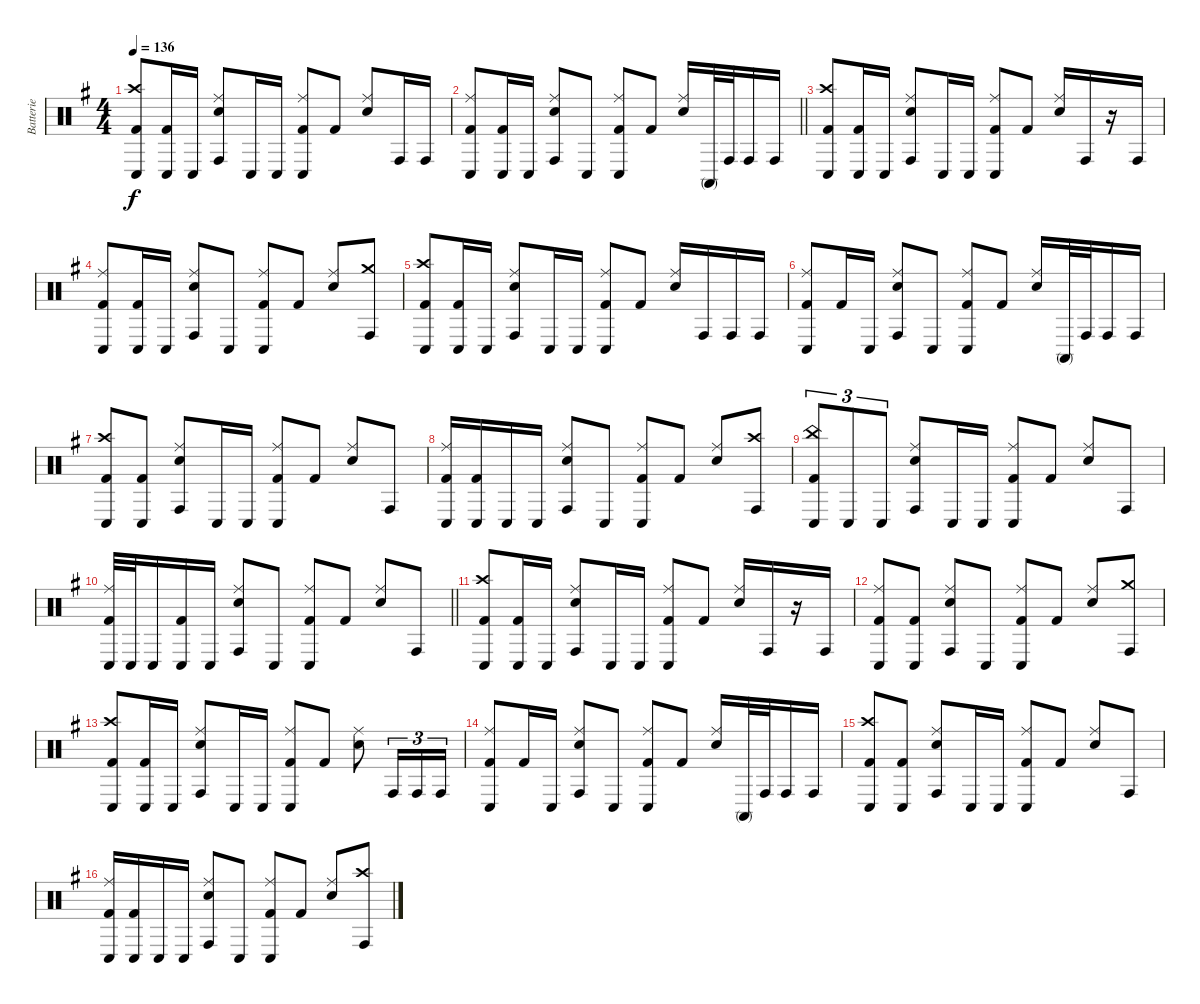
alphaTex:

\track ("Batterie" "Batterie") {instrument percussion}
\staff {score}
\articulation defaults
\ts (4 4)
\tempo 136
\clef neutral
\ks g
("Crash high (hit)" "Conga low (hit)" "Kick (hit) 2").8{dy f} ("Conga low (hit)" "Kick (hit) 2").16 "Conga low (hit)".16 ("Ride (middle)" "Conga high (hit)" "Snare (hit) 2").8 "Conga low (hit)".16 "Conga low (hit)".16 ("Ride (middle)" "Conga low (hit)" "Kick (hit) 2").8 "Kick (hit) 2".8 ("Ride (middle)" "Snare (hit) 2").8 "Conga high (hit)".16 "Conga high (hit)".16 |
\barLineRight lightlight
("Ride (middle)" "Conga low (hit)" "Kick (hit) 2").8 ("Conga low (hit)" "Kick (hit) 2").16 "Conga low (hit)".16 ("Ride (middle)" "Conga high (hit)" "Snare (hit) 2").8 "Conga low (hit)".8 ("Ride (middle)" "Conga low (hit)" "Kick (hit) 2").8 "Kick (hit) 2".8 ("Ride (middle)" "Snare (hit) 2").16 "Conga high (mute)".32 "Conga high (hit)".32 "Conga high (hit)".16 "Conga high (hit)".16 |
("Crash high (hit)" "Conga low (hit)" "Kick (hit) 2").8 ("Conga low (hit)" "Kick (hit) 2").16 "Conga low (hit)".16 ("Ride (middle)" "Conga high (hit)" "Snare (hit) 2").8 "Conga low (hit)".16 "Conga low (hit)".16 ("Ride (middle)" "Conga low (hit)" "Kick (hit) 2").8 "Kick (hit) 2".8 ("Ride (middle)" "Snare (hit) 2").16 "Conga high (hit)".16 r.16 "Conga high (hit)".16 |
("Ride (middle)" "Conga low (hit)" "Kick (hit) 2").8 ("Conga low (hit)" "Kick (hit) 2").16 "Conga low (hit)".16 ("Ride (middle)" "Conga high (hit)" "Snare (hit) 2").8 "Conga low (hit)".8 ("Ride (middle)" "Conga low (hit)" "Kick (hit) 2").8 "Kick (hit) 2".8 ("Ride (middle)" "Snare (hit) 2").8 ("Crash medium (hit)" "Conga high (hit)").8 |
("Crash high (hit)" "Conga low (hit)" "Kick (hit) 2").8 ("Conga low (hit)" "Kick (hit) 2").16 "Conga low (hit)".16 ("Ride (middle)" "Conga high (hit)" "Snare (hit) 2").8 "Conga low (hit)".16 "Conga low (hit)".16 ("Ride (middle)" "Conga low (hit)" "Kick (hit) 2").8 "Kick (hit) 2".8 ("Ride (middle)" "Snare (hit) 2").16 "Conga high (hit)".16 "Conga high (hit)".16 "Conga high (hit)".16 |
("Ride (middle)" "Conga low (hit)" "Kick (hit) 2").8 "Kick (hit) 2".16 "Conga low (hit)".16 ("Ride (middle)" "Conga high (hit)" "Snare (hit) 2").8 "Conga low (hit)".8 ("Ride (middle)" "Conga low (hit)" "Kick (hit) 2").8 "Kick (hit) 2".8 ("Ride (middle)" "Snare (hit) 2").16 "Conga high (mute)".32 "Conga high (hit)".32 "Conga high (hit)".16 "Conga high (hit)".16 |
("Crash high (hit)" "Conga low (hit)" "Kick (hit) 2").8 ("Conga low (hit)" "Kick (hit) 2").8 ("Ride (middle)" "Conga high (hit)" "Snare (hit) 2").8 "Conga low (hit)".16 "Conga low (hit)".16 ("Ride (middle)" "Conga low (hit)" "Kick (hit) 2").8 "Kick (hit) 2".8 ("Ride (middle)" "Snare (hit) 2").8 "Conga high (hit)".8 |
("Ride (middle)" "Conga low (hit)" "Kick (hit) 2").16 ("Conga low (hit)" "Kick (hit) 2").16 "Conga low (hit)".16 "Conga low (hit)".16 ("Ride (middle)" "Conga high (hit)" "Snare (hit) 2").8 "Conga low (hit)".8 ("Ride (middle)" "Conga low (hit)" "Kick (hit) 2").8 "Kick (hit) 2".8 ("Ride (middle)" "Snare (hit) 2").8 ("Crash high (hit)" "Conga high (hit)").8 |
("China (hit)" "Conga low (hit)" "Kick (hit) 2").8{tu (3 2)} "Conga low (hit)".8{tu (3 2)} "Conga low (hit)".8{tu (3 2)} ("Ride (middle)" "Conga high (hit)" "Snare (hit) 2").8 "Conga low (hit)".16 "Conga low (hit)".16 ("Ride (middle)" "Conga low (hit)" "Kick (hit) 2").8 "Kick (hit) 2".8 ("Ride (middle)" "Snare (hit) 2").8 "Conga high (hit)".8 |
\barLineRight lightlight
("Ride (middle)" "Conga low (hit)" "Kick (hit) 2").32 "Conga low (hit)".32 "Conga low (hit)".16 ("Conga low (hit)" "Kick (hit) 2").16 "Conga low (hit)".16 ("Ride (middle)" "Conga high (hit)" "Snare (hit) 2").8 "Conga low (hit)".8 ("Ride (middle)" "Conga low (hit)" "Kick (hit) 2").8 "Kick (hit) 2".8 ("Ride (middle)" "Snare (hit) 2").8 "Conga high (hit)".8 |
("Crash high (hit)" "Conga low (hit)" "Kick (hit) 2").8 ("Conga low (hit)" "Kick (hit) 2").16 "Conga low (hit)".16 ("Ride (middle)" "Conga high (hit)" "Snare (hit) 2").8 "Conga low (hit)".16 "Conga low (hit)".16 ("Ride (middle)" "Conga low (hit)" "Kick (hit) 2").8 "Kick (hit) 2".8 ("Ride (middle)" "Snare (hit) 2").16 "Conga high (hit)".16 r.16 "Conga high (hit)".16 |
("Ride (middle)" "Conga low (hit)" "Kick (hit) 2").8 ("Conga low (hit)" "Kick (hit) 2").8 ("Ride (middle)" "Conga high (hit)" "Snare (hit) 2").8 "Conga low (hit)".8 ("Ride (middle)" "Conga low (hit)" "Kick (hit) 2").8 "Kick (hit) 2".8 ("Ride (middle)" "Snare (hit) 2").8 ("Crash medium (hit)" "Conga high (hit)").8 |
("Crash high (hit)" "Conga low (hit)" "Kick (hit) 2").8 ("Conga low (hit)" "Kick (hit) 2").16 "Conga low (hit)".16 ("Ride (middle)" "Conga high (hit)" "Snare (hit) 2").8 "Conga low (hit)".16 "Conga low (hit)".16 ("Ride (middle)" "Conga low (hit)" "Kick (hit) 2").8 "Kick (hit) 2".8 ("Ride (middle)" "Snare (hit) 2").8 "Conga high (hit)".16{tu (3 2)} "Conga high (hit)".16{tu (3 2)} "Conga high (hit)".16{tu (3 2)} |
("Ride (middle)" "Conga low (hit)" "Kick (hit) 2").8 "Kick (hit) 2".16 "Conga low (hit)".16 ("Ride (middle)" "Conga high (hit)" "Snare (hit) 2").8 "Conga low (hit)".8 ("Ride (middle)" "Conga low (hit)" "Kick (hit) 2").8 "Kick (hit) 2".8 ("Ride (middle)" "Snare (hit) 2").16 "Conga high (mute)".32 "Conga high (hit)".32 "Conga high (hit)".16 "Conga high (hit)".16 |
("Crash high (hit)" "Conga low (hit)" "Kick (hit) 2").8 ("Conga low (hit)" "Kick (hit) 2").8 ("Ride (middle)" "Conga high (hit)" "Snare (hit) 2").8 "Conga low (hit)".16 "Conga low (hit)".16 ("Ride (middle)" "Conga low (hit)" "Kick (hit) 2").8 "Kick (hit) 2".8 ("Ride (middle)" "Snare (hit) 2").8 "Conga high (hit)".8 |
("Ride (middle)" "Conga low (hit)" "Kick (hit) 2").16 ("Conga low (hit)" "Kick (hit) 2").16 "Conga low (hit)".16 "Conga low (hit)".16 ("Ride (middle)" "Conga high (hit)" "Snare (hit) 2").8 "Conga low (hit)".8 ("Ride (middle)" "Conga low (hit)" "Kick (hit) 2").8 "Kick (hit) 2".8 ("Ride (middle)" "Snare (hit) 2").8 ("Crash high (hit)" "Conga high (hit)").8
